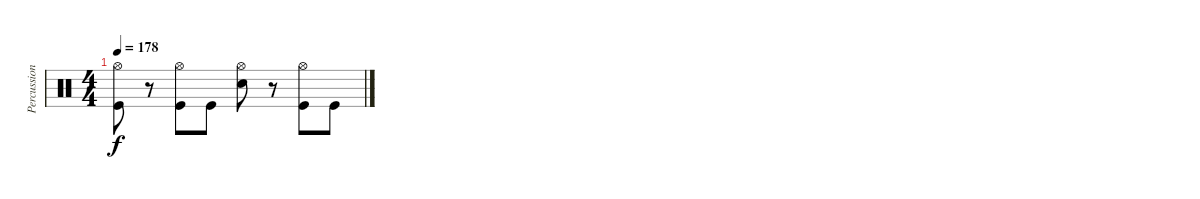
\track ("Percussion" "Percussion") {instrument percussion}
\staff {score}
\articulation defaults
\ts (4 4)
\tempo 178
\clef neutral
\ks c
("Hi-Hat (open)" "Kick (hit)").8{dy f} r.8 ("Hi-Hat (open)" "Kick (hit)").8 "Kick (hit)".8 ("Hi-Hat (open)" "Snare (hit) 2").8 r.8 ("Hi-Hat (open)" "Kick (hit)").8 "Kick (hit)".8
